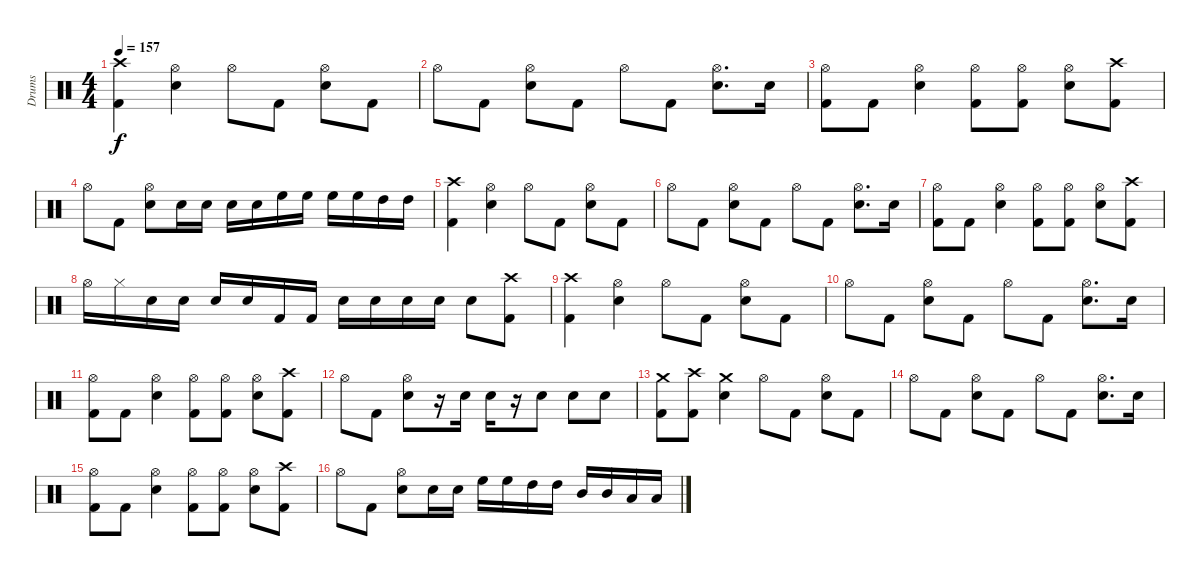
\track ("Drums" "Drums") {instrument percussion}
\staff {score}
\articulation defaults
\ts (4 4)
\tempo 157
\clef neutral
\ks c
("Kick (hit) 2" "Crash high (hit)").4{dy f} ("Electric Snare (hit)" "Hi-Hat (open)").4 "Hi-Hat (open)".8 "Kick (hit) 2".8 ("Electric Snare (hit)" "Hi-Hat (open)").8 "Kick (hit) 2".8 |
"Hi-Hat (open)".8 "Kick (hit) 2".8 ("Hi-Hat (open)" "Electric Snare (hit)").8 "Kick (hit) 2".8 "Hi-Hat (open)".8 "Kick (hit) 2".8 ("Hi-Hat (open)" "Electric Snare (hit)").8{d} "Electric Snare (hit)".16 |
("Kick (hit) 2" "Hi-Hat (open)").8 "Kick (hit) 2".8 ("Electric Snare (hit)" "Hi-Hat (open)").4 ("Kick (hit) 2" "Hi-Hat (open)").8 ("Kick (hit) 2" "Hi-Hat (open)").8 ("Hi-Hat (open)" "Electric Snare (hit)").8 ("Kick (hit) 2" "Crash high (hit)").8 |
"Hi-Hat (open)".8 "Kick (hit) 2".8 ("Electric Snare (hit)" "Hi-Hat (open)").8 "Electric Snare (hit)".16 "Electric Snare (hit)".16 "Electric Snare (hit)".16 "Electric Snare (hit)".16 "High Floor Tom (hit)".16 "High Floor Tom (hit)".16 "High Floor Tom (hit)".16 "High Floor Tom (hit)".16 "High Tom (hit)".16 "High Tom (hit)".16 |
("Crash high (hit)" "Kick (hit) 2").4 ("Electric Snare (hit)" "Hi-Hat (open)").4 "Hi-Hat (open)".8 "Kick (hit) 2".8 ("Electric Snare (hit)" "Hi-Hat (open)").8 "Kick (hit) 2".8 |
"Hi-Hat (open)".8 "Kick (hit) 2".8 ("Hi-Hat (open)" "Electric Snare (hit)").8 "Kick (hit) 2".8 "Hi-Hat (open)".8 "Kick (hit) 2".8 ("Hi-Hat (open)" "Electric Snare (hit)").8{d} "Electric Snare (hit)".16 |
("Kick (hit) 2" "Hi-Hat (open)").8 "Kick (hit) 2".8 ("Electric Snare (hit)" "Hi-Hat (open)").4 ("Kick (hit) 2" "Hi-Hat (open)").8 ("Kick (hit) 2" "Hi-Hat (open)").8 ("Hi-Hat (open)" "Electric Snare (hit)").8 ("Crash high (hit)" "Kick (hit) 2").8 |
"Hi-Hat (open)".16 "Hi-Hat (closed)".16 "Electric Snare (hit)".16 "Electric Snare (hit)".16 "Electric Snare (hit)".16 "Electric Snare (hit)".16 "Kick (hit) 2".16 "Kick (hit) 2".16 "Electric Snare (hit)".16 "Electric Snare (hit)".16 "Electric Snare (hit)".16 "Electric Snare (hit)".16 "Electric Snare (hit)".8 ("Crash high (hit)" "Kick (hit) 2").8 |
("Crash high (hit)" "Kick (hit) 2").4 ("Electric Snare (hit)" "Hi-Hat (open)").4 "Hi-Hat (open)".8 "Kick (hit) 2".8 ("Electric Snare (hit)" "Hi-Hat (open)").8 "Kick (hit) 2".8 |
"Hi-Hat (open)".8 "Kick (hit) 2".8 ("Hi-Hat (open)" "Electric Snare (hit)").8 "Kick (hit) 2".8 "Hi-Hat (open)".8 "Kick (hit) 2".8 ("Hi-Hat (open)" "Electric Snare (hit)").8{d} "Electric Snare (hit)".16 |
("Kick (hit) 2" "Hi-Hat (open)").8 "Kick (hit) 2".8 ("Electric Snare (hit)" "Hi-Hat (open)").4 ("Kick (hit) 2" "Hi-Hat (open)").8 ("Kick (hit) 2" "Hi-Hat (open)").8 ("Hi-Hat (open)" "Electric Snare (hit)").8 ("Kick (hit) 2" "Crash high (hit)").8 |
"Hi-Hat (open)".8 "Kick (hit) 2".8 ("Electric Snare (hit)" "Hi-Hat (open)").8 r.16 "Electric Snare (hit)".16 "Electric Snare (hit)".16 r.16 "Electric Snare (hit)".8 "Electric Snare (hit)".8 "Electric Snare (hit)".8 |
("Kick (hit) 2" "Crash medium (hit)").8 ("Kick (hit) 2" "Crash high (hit)").8 ("Electric Snare (hit)" "Crash medium (hit)").4 "Hi-Hat (open)".8 "Kick (hit) 2".8 ("Electric Snare (hit)" "Hi-Hat (open)").8 "Kick (hit) 2".8 |
"Hi-Hat (open)".8 "Kick (hit) 2".8 ("Hi-Hat (open)" "Electric Snare (hit)").8 "Kick (hit) 2".8 "Hi-Hat (open)".8 "Kick (hit) 2".8 ("Hi-Hat (open)" "Electric Snare (hit)").8{d} "Electric Snare (hit)".16 |
("Kick (hit) 2" "Hi-Hat (open)").8 "Kick (hit) 2".8 ("Electric Snare (hit)" "Hi-Hat (open)").4 ("Kick (hit) 2" "Hi-Hat (open)").8 ("Kick (hit) 2" "Hi-Hat (open)").8 ("Hi-Hat (open)" "Electric Snare (hit)").8 ("Kick (hit) 2" "Crash high (hit)").8 |
"Hi-Hat (open)".8 "Kick (hit) 2".8 ("Electric Snare (hit)" "Hi-Hat (open)").8 "Electric Snare (hit)".16 "Electric Snare (hit)".16 "High Floor Tom (hit)".16 "High Floor Tom (hit)".16 "High Tom (hit)".16 "High Tom (hit)".16 "Mid Tom (hit)".16 "Mid Tom (hit)".16 "Low Tom (hit)".16 "Low Tom (hit)".16
